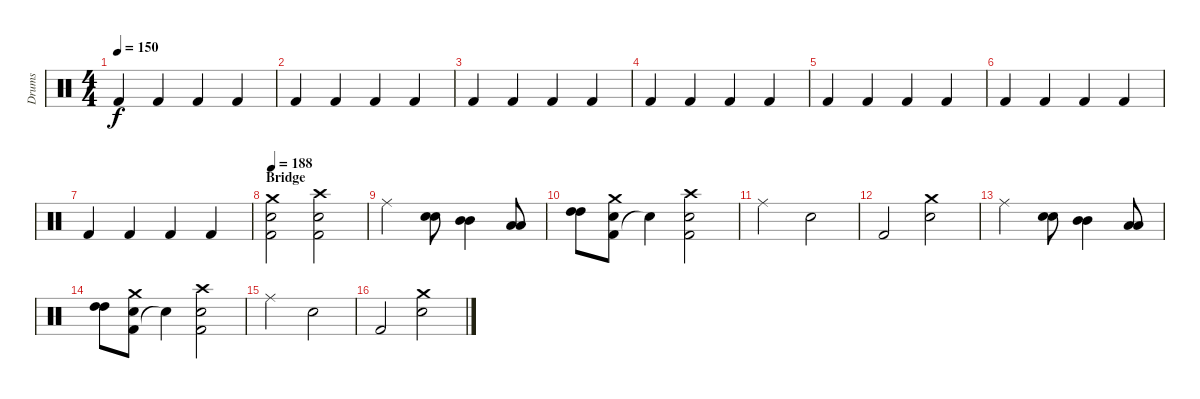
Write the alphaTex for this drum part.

\track ("Drums" "Drums") {instrument percussion}
\staff {score}
\articulation defaults
\ts (4 4)
\tempo 150
\clef neutral
\ks c "Kick (hit) 2".4{dy f} "Kick (hit) 2".4 "Kick (hit) 2".4 "Kick (hit) 2".4
|
"Kick (hit) 2".4 "Kick (hit) 2".4 "Kick (hit) 2".4 "Kick (hit) 2".4 |
"Kick (hit) 2".4 "Kick (hit) 2".4 "Kick (hit) 2".4 "Kick (hit) 2".4 |
"Kick (hit) 2".4 "Kick (hit) 2".4 "Kick (hit) 2".4 "Kick (hit) 2".4 |
"Kick (hit) 2".4 "Kick (hit) 2".4 "Kick (hit) 2".4 "Kick (hit) 2".4 |
"Kick (hit) 2".4 "Kick (hit) 2".4 "Kick (hit) 2".4 "Kick (hit) 2".4 |
"Kick (hit) 2".4 "Kick (hit) 2".4 "Kick (hit) 2".4 "Kick (hit) 2".4 |
\section ("" "Bridge")
\tempo 188
("Kick (hit) 2" "Snare (hit) 2" "Crash medium (hit)").2 ("Kick (hit) 2" "Snare (hit) 2" "Crash high (hit)").2 |
"Ride (middle)".2 ("Snare (hit) 2" "Snare (hit) 2").8 ("Mid Tom (hit)" "Mid Tom (hit)").4 ("Low Tom (hit)" "Low Tom (hit)").8 |
("High Tom (hit)" "High Tom (hit)").8 ("Kick (hit) 2" "Snare (hit) 2" "Crash medium (hit)").8 "Snare (hit)"{t}.4 ("Kick (hit) 2" "Snare (hit) 2" "Crash high (hit)").2 |
"Ride (middle)".2 "Snare (hit) 2".2 |
"Kick (hit) 2".2 ("Snare (hit) 2" "Crash medium (hit)").2 |
"Ride (middle)".2 ("Snare (hit) 2" "Snare (hit) 2").8 ("Mid Tom (hit)" "Mid Tom (hit)").4 ("Low Tom (hit)" "Low Tom (hit)").8 |
("High Tom (hit)" "High Tom (hit)").8 ("Kick (hit) 2" "Snare (hit) 2" "Crash medium (hit)").8 "Snare (hit)"{t}.4 ("Kick (hit) 2" "Snare (hit) 2" "Crash high (hit)").2 |
"Ride (middle)".2 "Snare (hit) 2".2 |
"Kick (hit) 2".2 ("Snare (hit) 2" "Crash medium (hit)").2
